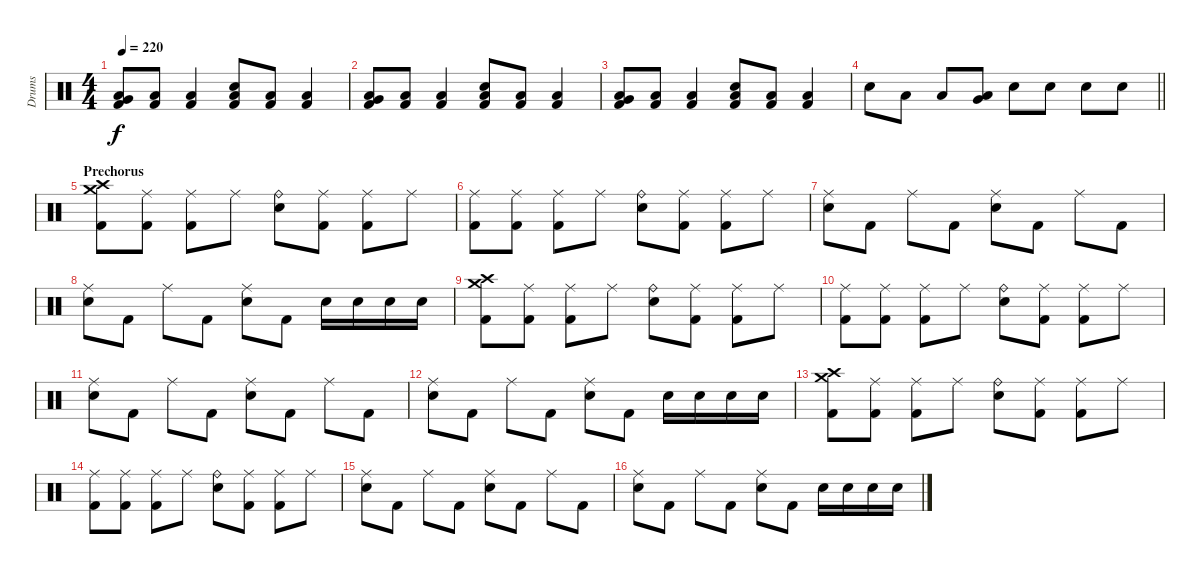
\track ("Drums" "Drums") {instrument percussion}
\staff {score}
\articulation defaults
\ts (4 4)
\tempo 220
\clef neutral
\ks c
("Very Low Tom (hit)" "Low Floor Tom (hit)" "Kick (hit) 2").8{dy f} ("Low Floor Tom (hit)" "Kick (hit) 2").8 ("Low Floor Tom (hit)" "Kick (hit) 2").4 ("Electric Snare (hit)" "Low Floor Tom (hit)" "Kick (hit) 2").8 ("Low Floor Tom (hit)" "Kick (hit) 2").8 ("Low Floor Tom (hit)" "Kick (hit) 2").4 |
("Very Low Tom (hit)" "Low Floor Tom (hit)" "Kick (hit) 2").8 ("Low Floor Tom (hit)" "Kick (hit) 2").8 ("Low Floor Tom (hit)" "Kick (hit) 2").4 ("Electric Snare (hit)" "Low Floor Tom (hit)" "Kick (hit) 2").8 ("Low Floor Tom (hit)" "Kick (hit) 2").8 ("Low Floor Tom (hit)" "Kick (hit) 2").4 |
("Very Low Tom (hit)" "Low Floor Tom (hit)" "Kick (hit) 2").8 ("Low Floor Tom (hit)" "Kick (hit) 2").8 ("Low Floor Tom (hit)" "Kick (hit) 2").4 ("Electric Snare (hit)" "Low Floor Tom (hit)" "Kick (hit) 2").8 ("Low Floor Tom (hit)" "Kick (hit) 2").8 ("Low Floor Tom (hit)" "Kick (hit) 2").4 |
\barLineRight lightlight "Electric Snare (hit)".8 "Low Floor Tom (hit)".8 "Low Floor Tom (hit)".8
("Very Low Tom (hit)" "Low Floor Tom (hit)").8 "Electric Snare (hit)".8 "Electric Snare (hit)".8 "Electric Snare (hit)".8 "Electric Snare (hit)".8 |
\section ("" "Prechorus")
("Crash medium (hit)" "Crash high (hit)" "Kick (hit) 2").8 ("Ride (middle)" "Kick (hit) 2").8 ("Ride (middle)" "Kick (hit) 2").8 "Ride (middle)".8 ("Ride (bell)" "Electric Snare (hit)").8 ("Ride (middle)" "Kick (hit) 2").8 ("Ride (middle)" "Kick (hit) 2").8 "Ride (middle)".8 |
("Ride (middle)" "Kick (hit) 2").8 ("Ride (middle)" "Kick (hit) 2").8 ("Ride (middle)" "Kick (hit) 2").8 "Ride (middle)".8 ("Ride (bell)" "Electric Snare (hit)").8 ("Ride (middle)" "Kick (hit) 2").8 ("Ride (middle)" "Kick (hit) 2").8 "Ride (middle)".8 |
("Ride (middle)" "Electric Snare (hit)").8 "Kick (hit) 2".8 "Ride (middle)".8 "Kick (hit) 2".8 ("Ride (middle)" "Electric Snare (hit)").8 "Kick (hit) 2".8 "Ride (middle)".8 "Kick (hit) 2".8 |
("Ride (middle)" "Electric Snare (hit)").8 "Kick (hit) 2".8 "Ride (middle)".8 "Kick (hit) 2".8 ("Ride (middle)" "Electric Snare (hit)").8 "Kick (hit) 2".8 "Electric Snare (hit)".16 "Electric Snare (hit)".16 "Electric Snare (hit)".16 "Electric Snare (hit)".16 |
("Crash medium (hit)" "Crash high (hit)" "Kick (hit) 2").8 ("Ride (middle)" "Kick (hit) 2").8 ("Ride (middle)" "Kick (hit) 2").8 "Ride (middle)".8 ("Ride (bell)" "Electric Snare (hit)").8 ("Ride (middle)" "Kick (hit) 2").8 ("Ride (middle)" "Kick (hit) 2").8 "Ride (middle)".8 |
("Ride (middle)" "Kick (hit) 2").8 ("Ride (middle)" "Kick (hit) 2").8 ("Ride (middle)" "Kick (hit) 2").8 "Ride (middle)".8 ("Ride (bell)" "Electric Snare (hit)").8 ("Ride (middle)" "Kick (hit) 2").8 ("Ride (middle)" "Kick (hit) 2").8 "Ride (middle)".8 |
("Ride (middle)" "Electric Snare (hit)").8 "Kick (hit) 2".8 "Ride (middle)".8 "Kick (hit) 2".8 ("Ride (middle)" "Electric Snare (hit)").8 "Kick (hit) 2".8 "Ride (middle)".8 "Kick (hit) 2".8 |
("Ride (middle)" "Electric Snare (hit)").8 "Kick (hit) 2".8 "Ride (middle)".8 "Kick (hit) 2".8 ("Ride (middle)" "Electric Snare (hit)").8 "Kick (hit) 2".8 "Electric Snare (hit)".16 "Electric Snare (hit)".16 "Electric Snare (hit)".16 "Electric Snare (hit)".16 |
("Crash medium (hit)" "Crash high (hit)" "Kick (hit) 2").8 ("Ride (middle)" "Kick (hit) 2").8 ("Ride (middle)" "Kick (hit) 2").8 "Ride (middle)".8 ("Ride (bell)" "Electric Snare (hit)").8 ("Ride (middle)" "Kick (hit) 2").8 ("Ride (middle)" "Kick (hit) 2").8 "Ride (middle)".8 |
("Ride (middle)" "Kick (hit) 2").8 ("Ride (middle)" "Kick (hit) 2").8 ("Ride (middle)" "Kick (hit) 2").8 "Ride (middle)".8 ("Ride (bell)" "Electric Snare (hit)").8 ("Ride (middle)" "Kick (hit) 2").8 ("Ride (middle)" "Kick (hit) 2").8 "Ride (middle)".8 |
("Ride (middle)" "Electric Snare (hit)").8 "Kick (hit) 2".8 "Ride (middle)".8 "Kick (hit) 2".8 ("Ride (middle)" "Electric Snare (hit)").8 "Kick (hit) 2".8 "Ride (middle)".8 "Kick (hit) 2".8 |
("Ride (middle)" "Electric Snare (hit)").8 "Kick (hit) 2".8 "Ride (middle)".8 "Kick (hit) 2".8 ("Ride (middle)" "Electric Snare (hit)").8 "Kick (hit) 2".8 "Electric Snare (hit)".16 "Electric Snare (hit)".16 "Electric Snare (hit)".16 "Electric Snare (hit)".16
